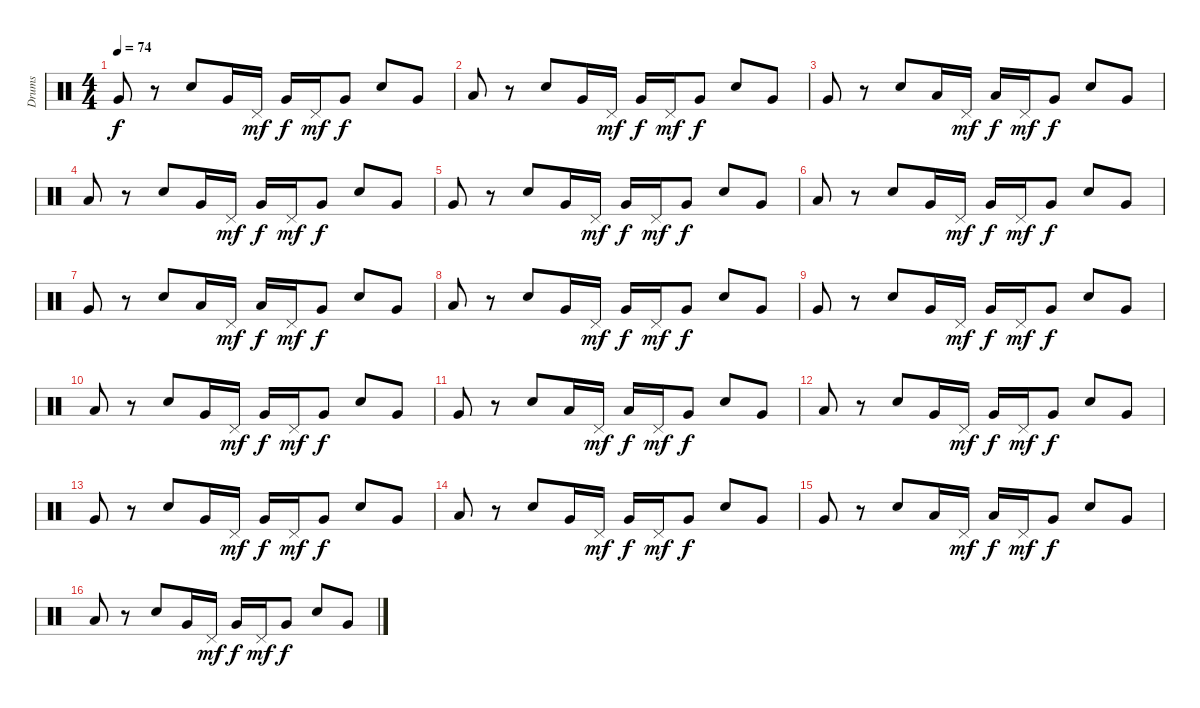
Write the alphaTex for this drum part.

\track ("Drums" "Drums") {instrument percussion}
\staff {score}
\articulation defaults
\ts (4 4)
\tempo 74
\clef neutral
\ks c "Very Low Tom (hit)".8{dy f}
r.8 "Electric Snare (hit)".8 "Very Low Tom (hit)".16 "Pedal Hi-Hat (hit)".16{dy mf} "Very Low Tom (hit)".16{dy f} "Pedal Hi-Hat (hit)".16{dy mf} "Very Low Tom (hit)".8{dy f} "Electric Snare (hit)".8 "Very Low Tom (hit)".8 |
"Low Floor Tom (hit)".8 r.8 "Electric Snare (hit)".8 "Very Low Tom (hit)".16 "Pedal Hi-Hat (hit)".16{dy mf} "Very Low Tom (hit)".16{dy f} "Pedal Hi-Hat (hit)".16{dy mf} "Very Low Tom (hit)".8{dy f} "Electric Snare (hit)".8 "Very Low Tom (hit)".8 |
"Very Low Tom (hit)".8 r.8 "Electric Snare (hit)".8 "Low Floor Tom (hit)".16 "Pedal Hi-Hat (hit)".16{dy mf} "Low Floor Tom (hit)".16{dy f} "Pedal Hi-Hat (hit)".16{dy mf} "Very Low Tom (hit)".8{dy f} "Electric Snare (hit)".8 "Very Low Tom (hit)".8 |
"Low Floor Tom (hit)".8 r.8 "Electric Snare (hit)".8 "Very Low Tom (hit)".16 "Pedal Hi-Hat (hit)".16{dy mf} "Very Low Tom (hit)".16{dy f} "Pedal Hi-Hat (hit)".16{dy mf} "Very Low Tom (hit)".8{dy f} "Electric Snare (hit)".8 "Very Low Tom (hit)".8 |
"Very Low Tom (hit)".8 r.8 "Electric Snare (hit)".8 "Very Low Tom (hit)".16 "Pedal Hi-Hat (hit)".16{dy mf} "Very Low Tom (hit)".16{dy f} "Pedal Hi-Hat (hit)".16{dy mf} "Very Low Tom (hit)".8{dy f} "Electric Snare (hit)".8 "Very Low Tom (hit)".8 |
"Low Floor Tom (hit)".8 r.8 "Electric Snare (hit)".8 "Very Low Tom (hit)".16 "Pedal Hi-Hat (hit)".16{dy mf} "Very Low Tom (hit)".16{dy f} "Pedal Hi-Hat (hit)".16{dy mf} "Very Low Tom (hit)".8{dy f} "Electric Snare (hit)".8 "Very Low Tom (hit)".8 |
"Very Low Tom (hit)".8 r.8 "Electric Snare (hit)".8 "Low Floor Tom (hit)".16 "Pedal Hi-Hat (hit)".16{dy mf} "Low Floor Tom (hit)".16{dy f} "Pedal Hi-Hat (hit)".16{dy mf} "Very Low Tom (hit)".8{dy f} "Electric Snare (hit)".8 "Very Low Tom (hit)".8 |
"Low Floor Tom (hit)".8 r.8 "Electric Snare (hit)".8 "Very Low Tom (hit)".16 "Pedal Hi-Hat (hit)".16{dy mf} "Very Low Tom (hit)".16{dy f} "Pedal Hi-Hat (hit)".16{dy mf} "Very Low Tom (hit)".8{dy f} "Electric Snare (hit)".8 "Very Low Tom (hit)".8 |
"Very Low Tom (hit)".8 r.8 "Electric Snare (hit)".8 "Very Low Tom (hit)".16 "Pedal Hi-Hat (hit)".16{dy mf} "Very Low Tom (hit)".16{dy f} "Pedal Hi-Hat (hit)".16{dy mf} "Very Low Tom (hit)".8{dy f} "Electric Snare (hit)".8 "Very Low Tom (hit)".8 |
"Low Floor Tom (hit)".8 r.8 "Electric Snare (hit)".8 "Very Low Tom (hit)".16 "Pedal Hi-Hat (hit)".16{dy mf} "Very Low Tom (hit)".16{dy f} "Pedal Hi-Hat (hit)".16{dy mf} "Very Low Tom (hit)".8{dy f} "Electric Snare (hit)".8 "Very Low Tom (hit)".8 |
"Very Low Tom (hit)".8 r.8 "Electric Snare (hit)".8 "Low Floor Tom (hit)".16 "Pedal Hi-Hat (hit)".16{dy mf} "Low Floor Tom (hit)".16{dy f} "Pedal Hi-Hat (hit)".16{dy mf} "Very Low Tom (hit)".8{dy f} "Electric Snare (hit)".8 "Very Low Tom (hit)".8 |
"Low Floor Tom (hit)".8 r.8 "Electric Snare (hit)".8 "Very Low Tom (hit)".16 "Pedal Hi-Hat (hit)".16{dy mf} "Very Low Tom (hit)".16{dy f} "Pedal Hi-Hat (hit)".16{dy mf} "Very Low Tom (hit)".8{dy f} "Electric Snare (hit)".8 "Very Low Tom (hit)".8 |
"Very Low Tom (hit)".8 r.8 "Electric Snare (hit)".8 "Very Low Tom (hit)".16 "Pedal Hi-Hat (hit)".16{dy mf} "Very Low Tom (hit)".16{dy f} "Pedal Hi-Hat (hit)".16{dy mf} "Very Low Tom (hit)".8{dy f} "Electric Snare (hit)".8 "Very Low Tom (hit)".8 |
"Low Floor Tom (hit)".8 r.8 "Electric Snare (hit)".8 "Very Low Tom (hit)".16 "Pedal Hi-Hat (hit)".16{dy mf} "Very Low Tom (hit)".16{dy f} "Pedal Hi-Hat (hit)".16{dy mf} "Very Low Tom (hit)".8{dy f} "Electric Snare (hit)".8 "Very Low Tom (hit)".8 |
"Very Low Tom (hit)".8 r.8 "Electric Snare (hit)".8 "Low Floor Tom (hit)".16 "Pedal Hi-Hat (hit)".16{dy mf} "Low Floor Tom (hit)".16{dy f} "Pedal Hi-Hat (hit)".16{dy mf} "Very Low Tom (hit)".8{dy f} "Electric Snare (hit)".8 "Very Low Tom (hit)".8 |
"Low Floor Tom (hit)".8 r.8 "Electric Snare (hit)".8 "Very Low Tom (hit)".16 "Pedal Hi-Hat (hit)".16{dy mf} "Very Low Tom (hit)".16{dy f} "Pedal Hi-Hat (hit)".16{dy mf} "Very Low Tom (hit)".8{dy f} "Electric Snare (hit)".8 "Very Low Tom (hit)".8
